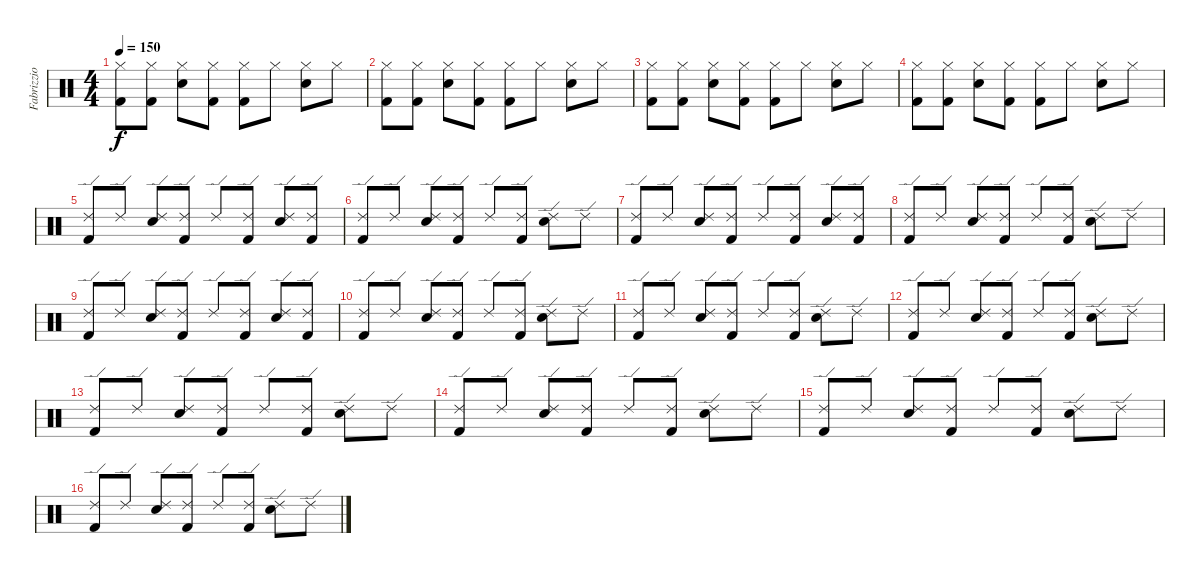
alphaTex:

\track ("Fabrizzio" "Fabrizzio") {instrument percussion}
\staff {score}
\articulation defaults
\ts (4 4)
\tempo 150
\clef neutral
\ks c
("Hi-Hat (closed)" "Kick (hit) 2").8{dy f} ("Hi-Hat (closed)" "Kick (hit) 2").8 ("Hi-Hat (closed)" "Electric Snare (hit)").8 ("Hi-Hat (closed)" "Kick (hit) 2").8 ("Hi-Hat (closed)" "Kick (hit) 2").8 "Hi-Hat (closed)".8 ("Hi-Hat (closed)" "Electric Snare (hit)").8 "Hi-Hat (closed)".8 |
("Hi-Hat (closed)" "Kick (hit) 2").8 ("Hi-Hat (closed)" "Kick (hit) 2").8 ("Hi-Hat (closed)" "Electric Snare (hit)").8 ("Hi-Hat (closed)" "Kick (hit) 2").8 ("Hi-Hat (closed)" "Kick (hit) 2").8 "Hi-Hat (closed)".8 ("Hi-Hat (closed)" "Electric Snare (hit)").8 "Hi-Hat (closed)".8 |
("Hi-Hat (closed)" "Kick (hit) 2").8 ("Hi-Hat (closed)" "Kick (hit) 2").8 ("Hi-Hat (closed)" "Electric Snare (hit)").8 ("Hi-Hat (closed)" "Kick (hit) 2").8 ("Hi-Hat (closed)" "Kick (hit) 2").8 "Hi-Hat (closed)".8 ("Hi-Hat (closed)" "Electric Snare (hit)").8 "Hi-Hat (closed)".8 |
("Hi-Hat (closed)" "Kick (hit) 2").8 ("Hi-Hat (closed)" "Kick (hit) 2").8 ("Hi-Hat (closed)" "Electric Snare (hit)").8 ("Hi-Hat (closed)" "Kick (hit) 2").8 ("Hi-Hat (closed)" "Kick (hit) 2").8 "Hi-Hat (closed)".8 ("Hi-Hat (closed)" "Electric Snare (hit)").8 "Hi-Hat (closed)".8 |
("Ride (edge) 2" "Kick (hit) 2").8 "Ride (edge) 2".8 ("Ride (edge) 2" "Electric Snare (hit)").8 ("Ride (edge) 2" "Kick (hit) 2").8 "Ride (edge) 2".8 ("Ride (edge) 2" "Kick (hit) 2").8 ("Ride (edge) 2" "Electric Snare (hit)").8 ("Ride (edge) 2" "Kick (hit) 2").8 |
("Ride (edge) 2" "Kick (hit) 2").8 "Ride (edge) 2".8 ("Ride (edge) 2" "Electric Snare (hit)").8 ("Ride (edge) 2" "Kick (hit) 2").8 "Ride (edge) 2".8 ("Ride (edge) 2" "Kick (hit) 2").8 ("Ride (edge) 2" "Electric Snare (hit)").8 "Ride (edge) 2".8 |
("Ride (edge) 2" "Kick (hit) 2").8 "Ride (edge) 2".8 ("Ride (edge) 2" "Electric Snare (hit)").8 ("Ride (edge) 2" "Kick (hit) 2").8 "Ride (edge) 2".8 ("Ride (edge) 2" "Kick (hit) 2").8 ("Ride (edge) 2" "Electric Snare (hit)").8 ("Ride (edge) 2" "Kick (hit) 2").8 |
("Ride (edge) 2" "Kick (hit) 2").8 "Ride (edge) 2".8 ("Ride (edge) 2" "Electric Snare (hit)").8 ("Ride (edge) 2" "Kick (hit) 2").8 "Ride (edge) 2".8 ("Ride (edge) 2" "Kick (hit) 2").8 ("Ride (edge) 2" "Electric Snare (hit)").8 "Ride (edge) 2".8 |
("Ride (edge) 2" "Kick (hit) 2").8 "Ride (edge) 2".8 ("Ride (edge) 2" "Electric Snare (hit)").8 ("Ride (edge) 2" "Kick (hit) 2").8 "Ride (edge) 2".8 ("Ride (edge) 2" "Kick (hit) 2").8 ("Ride (edge) 2" "Electric Snare (hit)").8 ("Ride (edge) 2" "Kick (hit) 2").8 |
("Ride (edge) 2" "Kick (hit) 2").8 "Ride (edge) 2".8 ("Ride (edge) 2" "Electric Snare (hit)").8 ("Ride (edge) 2" "Kick (hit) 2").8 "Ride (edge) 2".8 ("Ride (edge) 2" "Kick (hit) 2").8 ("Ride (edge) 2" "Electric Snare (hit)").8 "Ride (edge) 2".8 |
("Ride (edge) 2" "Kick (hit) 2").8 "Ride (edge) 2".8 ("Ride (edge) 2" "Electric Snare (hit)").8 ("Ride (edge) 2" "Kick (hit) 2").8 "Ride (edge) 2".8 ("Ride (edge) 2" "Kick (hit) 2").8 ("Ride (edge) 2" "Electric Snare (hit)").8 "Ride (edge) 2".8 |
("Ride (edge) 2" "Kick (hit) 2").8 "Ride (edge) 2".8 ("Ride (edge) 2" "Electric Snare (hit)").8 ("Ride (edge) 2" "Kick (hit) 2").8 "Ride (edge) 2".8 ("Ride (edge) 2" "Kick (hit) 2").8 ("Ride (edge) 2" "Electric Snare (hit)").8 "Ride (edge) 2".8 |
("Ride (edge) 2" "Kick (hit) 2").8 "Ride (edge) 2".8 ("Ride (edge) 2" "Electric Snare (hit)").8 ("Ride (edge) 2" "Kick (hit) 2").8 "Ride (edge) 2".8 ("Ride (edge) 2" "Kick (hit) 2").8 ("Ride (edge) 2" "Electric Snare (hit)").8 "Ride (edge) 2".8 |
("Ride (edge) 2" "Kick (hit) 2").8 "Ride (edge) 2".8 ("Ride (edge) 2" "Electric Snare (hit)").8 ("Ride (edge) 2" "Kick (hit) 2").8 "Ride (edge) 2".8 ("Ride (edge) 2" "Kick (hit) 2").8 ("Ride (edge) 2" "Electric Snare (hit)").8 "Ride (edge) 2".8 |
("Ride (edge) 2" "Kick (hit) 2").8 "Ride (edge) 2".8 ("Ride (edge) 2" "Electric Snare (hit)").8 ("Ride (edge) 2" "Kick (hit) 2").8 "Ride (edge) 2".8 ("Ride (edge) 2" "Kick (hit) 2").8 ("Ride (edge) 2" "Electric Snare (hit)").8 "Ride (edge) 2".8 |
("Ride (edge) 2" "Kick (hit) 2").8 "Ride (edge) 2".8 ("Ride (edge) 2" "Electric Snare (hit)").8 ("Ride (edge) 2" "Kick (hit) 2").8 "Ride (edge) 2".8 ("Ride (edge) 2" "Kick (hit) 2").8 ("Ride (edge) 2" "Electric Snare (hit)").8 "Ride (edge) 2".8
